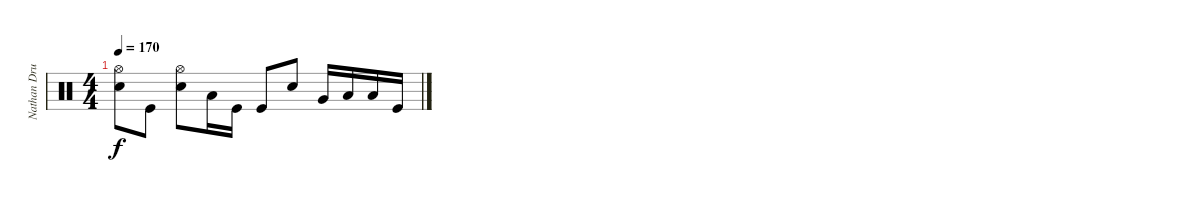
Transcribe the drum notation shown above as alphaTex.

\track ("Nathan Drum Programming" "Nathan Dru") {instrument percussion}
\staff {score}
\articulation defaults
\ts (4 4)
\tempo 170
\clef neutral
\ks c
("Snare (hit) 2" "Hi-Hat (open)").8{dy f} "Kick (hit)".8 ("Snare (hit) 2" "Hi-Hat (open)").8 "Low Floor Tom (hit)".16 "Kick (hit)".16 "Kick (hit)".8 "Snare (hit) 2".8 "Very Low Tom (hit)".16 "Low Floor Tom (hit)".16 "Low Floor Tom (hit)".16 "Kick (hit)".16
